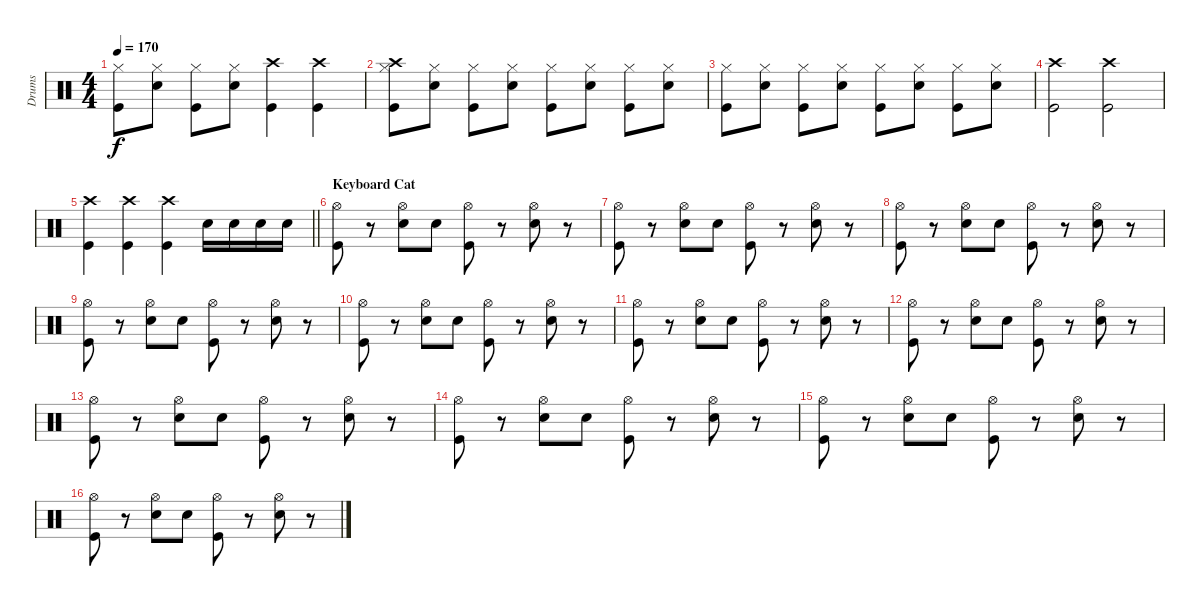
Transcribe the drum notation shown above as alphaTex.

\track ("Drums" "Drums") {instrument percussion}
\staff {score}
\articulation defaults
\ts (4 4)
\tempo 170
\clef neutral
\ks c
("Hi-Hat (closed)" "Kick (hit)").8{dy f} ("Hi-Hat (closed)" "Electric Snare (hit)").8 ("Hi-Hat (closed)" "Kick (hit)").8 ("Hi-Hat (closed)" "Electric Snare (hit)").8 ("Crash high (hit)" "Kick (hit)").4 ("Crash high (hit)" "Kick (hit)").4 |
("Hi-Hat (closed)" "Kick (hit)" "Crash high (hit)").8 ("Hi-Hat (closed)" "Electric Snare (hit)").8 ("Hi-Hat (closed)" "Kick (hit)").8 ("Hi-Hat (closed)" "Electric Snare (hit)").8 ("Hi-Hat (closed)" "Kick (hit)").8 ("Hi-Hat (closed)" "Electric Snare (hit)").8 ("Hi-Hat (closed)" "Kick (hit)").8 ("Hi-Hat (closed)" "Electric Snare (hit)").8 |
("Hi-Hat (closed)" "Kick (hit)").8 ("Hi-Hat (closed)" "Electric Snare (hit)").8 ("Hi-Hat (closed)" "Kick (hit)").8 ("Hi-Hat (closed)" "Electric Snare (hit)").8 ("Hi-Hat (closed)" "Kick (hit)").8 ("Hi-Hat (closed)" "Electric Snare (hit)").8 ("Hi-Hat (closed)" "Kick (hit)").8 ("Hi-Hat (closed)" "Electric Snare (hit)").8 |
("Crash high (hit)" "Kick (hit)").2 ("Crash high (hit)" "Kick (hit)").2 |
\barLineRight lightlight
("Kick (hit)" "Crash high (hit)").4 ("Kick (hit)" "Crash high (hit)").4 ("Kick (hit)" "Crash high (hit)").4 "Electric Snare (hit)".16 "Electric Snare (hit)".16 "Electric Snare (hit)".16 "Electric Snare (hit)".16 |
\section ("" "Keyboard Cat")
("Kick (hit)" "Hi-Hat (open)").8 r.8 ("Electric Snare (hit)" "Hi-Hat (open)").8 "Electric Snare (hit)".8 ("Kick (hit)" "Hi-Hat (open)").8 r.8 ("Electric Snare (hit)" "Hi-Hat (open)").8 r.8 |
("Kick (hit)" "Hi-Hat (open)").8 r.8 ("Electric Snare (hit)" "Hi-Hat (open)").8 "Electric Snare (hit)".8 ("Kick (hit)" "Hi-Hat (open)").8 r.8 ("Electric Snare (hit)" "Hi-Hat (open)").8 r.8 |
("Kick (hit)" "Hi-Hat (open)").8 r.8 ("Electric Snare (hit)" "Hi-Hat (open)").8 "Electric Snare (hit)".8 ("Kick (hit)" "Hi-Hat (open)").8 r.8 ("Electric Snare (hit)" "Hi-Hat (open)").8 r.8 |
("Kick (hit)" "Hi-Hat (open)").8 r.8 ("Electric Snare (hit)" "Hi-Hat (open)").8 "Electric Snare (hit)".8 ("Kick (hit)" "Hi-Hat (open)").8 r.8 ("Electric Snare (hit)" "Hi-Hat (open)").8 r.8 |
("Kick (hit)" "Hi-Hat (open)").8 r.8 ("Electric Snare (hit)" "Hi-Hat (open)").8 "Electric Snare (hit)".8 ("Kick (hit)" "Hi-Hat (open)").8 r.8 ("Electric Snare (hit)" "Hi-Hat (open)").8 r.8 |
("Kick (hit)" "Hi-Hat (open)").8 r.8 ("Electric Snare (hit)" "Hi-Hat (open)").8 "Electric Snare (hit)".8 ("Kick (hit)" "Hi-Hat (open)").8 r.8 ("Electric Snare (hit)" "Hi-Hat (open)").8 r.8 |
("Kick (hit)" "Hi-Hat (open)").8 r.8 ("Electric Snare (hit)" "Hi-Hat (open)").8 "Electric Snare (hit)".8 ("Kick (hit)" "Hi-Hat (open)").8 r.8 ("Electric Snare (hit)" "Hi-Hat (open)").8 r.8 |
("Kick (hit)" "Hi-Hat (open)").8 r.8 ("Electric Snare (hit)" "Hi-Hat (open)").8 "Electric Snare (hit)".8 ("Kick (hit)" "Hi-Hat (open)").8 r.8 ("Electric Snare (hit)" "Hi-Hat (open)").8 r.8 |
("Kick (hit)" "Hi-Hat (open)").8 r.8 ("Electric Snare (hit)" "Hi-Hat (open)").8 "Electric Snare (hit)".8 ("Kick (hit)" "Hi-Hat (open)").8 r.8 ("Electric Snare (hit)" "Hi-Hat (open)").8 r.8 |
("Kick (hit)" "Hi-Hat (open)").8 r.8 ("Electric Snare (hit)" "Hi-Hat (open)").8 "Electric Snare (hit)".8 ("Kick (hit)" "Hi-Hat (open)").8 r.8 ("Electric Snare (hit)" "Hi-Hat (open)").8 r.8 |
("Kick (hit)" "Hi-Hat (open)").8 r.8 ("Electric Snare (hit)" "Hi-Hat (open)").8 "Electric Snare (hit)".8 ("Kick (hit)" "Hi-Hat (open)").8 r.8 ("Electric Snare (hit)" "Hi-Hat (open)").8 r.8
